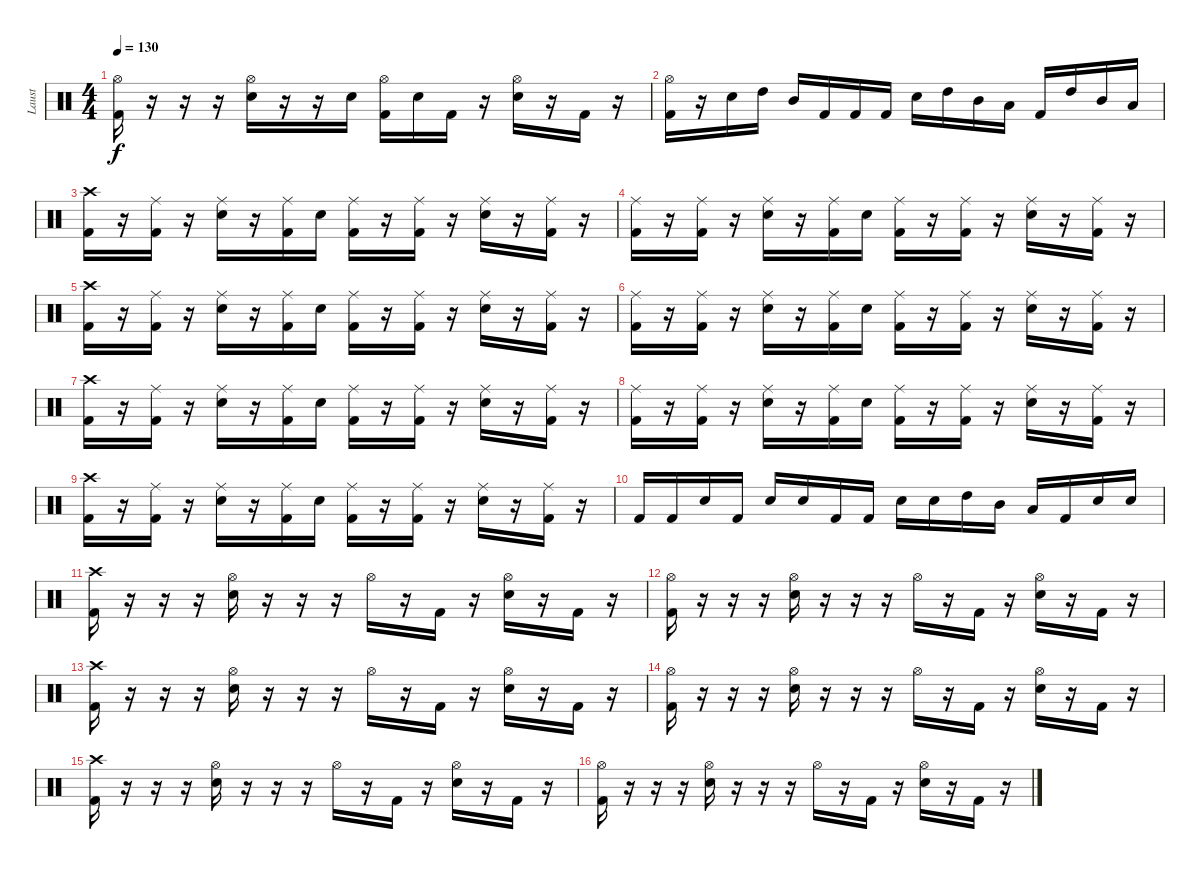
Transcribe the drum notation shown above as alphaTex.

\track ("Laust" "Laust") {instrument percussion}
\staff {score}
\articulation defaults
\ts (4 4)
\tempo 130
\clef neutral
\ks c
("Hi-Hat (open)" "Kick (hit) 2").16{dy f} r.16 r.16 r.16 ("Hi-Hat (open)" "Snare (hit) 2").16 r.16 r.16 "Snare (hit) 2".16 ("Hi-Hat (open)" "Kick (hit) 2").16 "Snare (hit) 2".16 "Kick (hit) 2".16 r.16 ("Hi-Hat (open)" "Snare (hit) 2").16 r.16 "Kick (hit) 2".16 r.16 |
("Hi-Hat (open)" "Kick (hit) 2").16 r.16 "Snare (hit) 2".16 "High Tom (hit)".16 "Mid Tom (hit)".16 "Kick (hit) 2".16 "Kick (hit) 2".16 "Kick (hit) 2".16 "Snare (hit) 2".16 "High Tom (hit)".16 "Mid Tom (hit)".16 "Low Floor Tom (hit)".16 "Kick (hit) 2".16 "High Tom (hit)".16 "Mid Tom (hit)".16 "Low Floor Tom (hit)".16 |
("Crash high (hit)" "Kick (hit) 2").16 r.16 ("Ride (middle)" "Kick (hit) 2").16 r.16 ("Ride (middle)" "Snare (hit) 2").16 r.16 ("Ride (middle)" "Kick (hit) 2").16 "Snare (hit) 2".16 ("Ride (middle)" "Kick (hit) 2").16 r.16 ("Ride (middle)" "Kick (hit) 2").16 r.16 ("Ride (middle)" "Snare (hit) 2").16 r.16 ("Ride (middle)" "Kick (hit) 2").16 r.16 |
("Ride (middle)" "Kick (hit) 2").16 r.16 ("Ride (middle)" "Kick (hit) 2").16 r.16 ("Ride (middle)" "Snare (hit) 2").16 r.16 ("Ride (middle)" "Kick (hit) 2").16 "Snare (hit) 2".16 ("Ride (middle)" "Kick (hit) 2").16 r.16 ("Ride (middle)" "Kick (hit) 2").16 r.16 ("Ride (middle)" "Snare (hit) 2").16 r.16 ("Ride (middle)" "Kick (hit) 2").16 r.16 |
("Crash high (hit)" "Kick (hit) 2").16 r.16 ("Ride (middle)" "Kick (hit) 2").16 r.16 ("Ride (middle)" "Snare (hit) 2").16 r.16 ("Ride (middle)" "Kick (hit) 2").16 "Snare (hit) 2".16 ("Ride (middle)" "Kick (hit) 2").16 r.16 ("Ride (middle)" "Kick (hit) 2").16 r.16 ("Ride (middle)" "Snare (hit) 2").16 r.16 ("Ride (middle)" "Kick (hit) 2").16 r.16 |
("Ride (middle)" "Kick (hit) 2").16 r.16 ("Ride (middle)" "Kick (hit) 2").16 r.16 ("Ride (middle)" "Snare (hit) 2").16 r.16 ("Ride (middle)" "Kick (hit) 2").16 "Snare (hit) 2".16 ("Ride (middle)" "Kick (hit) 2").16 r.16 ("Ride (middle)" "Kick (hit) 2").16 r.16 ("Ride (middle)" "Snare (hit) 2").16 r.16 ("Ride (middle)" "Kick (hit) 2").16 r.16 |
("Crash high (hit)" "Kick (hit) 2").16 r.16 ("Ride (middle)" "Kick (hit) 2").16 r.16 ("Ride (middle)" "Snare (hit) 2").16 r.16 ("Ride (middle)" "Kick (hit) 2").16 "Snare (hit) 2".16 ("Ride (middle)" "Kick (hit) 2").16 r.16 ("Ride (middle)" "Kick (hit) 2").16 r.16 ("Ride (middle)" "Snare (hit) 2").16 r.16 ("Ride (middle)" "Kick (hit) 2").16 r.16 |
("Ride (middle)" "Kick (hit) 2").16 r.16 ("Ride (middle)" "Kick (hit) 2").16 r.16 ("Ride (middle)" "Snare (hit) 2").16 r.16 ("Ride (middle)" "Kick (hit) 2").16 "Snare (hit) 2".16 ("Ride (middle)" "Kick (hit) 2").16 r.16 ("Ride (middle)" "Kick (hit) 2").16 r.16 ("Ride (middle)" "Snare (hit) 2").16 r.16 ("Ride (middle)" "Kick (hit) 2").16 r.16 |
("Crash high (hit)" "Kick (hit) 2").16 r.16 ("Ride (middle)" "Kick (hit) 2").16 r.16 ("Ride (middle)" "Snare (hit) 2").16 r.16 ("Ride (middle)" "Kick (hit) 2").16 "Snare (hit) 2".16 ("Ride (middle)" "Kick (hit) 2").16 r.16 ("Ride (middle)" "Kick (hit) 2").16 r.16 ("Ride (middle)" "Snare (hit) 2").16 r.16 ("Ride (middle)" "Kick (hit) 2").16 r.16 |
"Kick (hit) 2".16 "Kick (hit) 2".16 "Snare (hit) 2".16 "Kick (hit) 2".16 "Snare (hit) 2".16 "Snare (hit) 2".16 "Kick (hit) 2".16 "Kick (hit) 2".16 "Snare (hit) 2".16 "Snare (hit) 2".16 "High Tom (hit)".16 "Mid Tom (hit)".16 "Low Floor Tom (hit)".16 "Kick (hit) 2".16 "Snare (hit) 2".16 "Snare (hit) 2".16 |
("Crash high (hit)" "Kick (hit) 2").16 r.16 r.16 r.16 ("Hi-Hat (open)" "Snare (hit) 2").16 r.16 r.16 r.16 "Hi-Hat (open)".16 r.16 "Kick (hit) 2".16 r.16 ("Hi-Hat (open)" "Snare (hit) 2").16 r.16 "Kick (hit) 2".16 r.16 |
("Hi-Hat (open)" "Kick (hit) 2").16 r.16 r.16 r.16 ("Hi-Hat (open)" "Snare (hit) 2").16 r.16 r.16 r.16 "Hi-Hat (open)".16 r.16 "Kick (hit) 2".16 r.16 ("Hi-Hat (open)" "Snare (hit) 2").16 r.16 "Kick (hit) 2".16 r.16 |
("Crash high (hit)" "Kick (hit) 2").16 r.16 r.16 r.16 ("Hi-Hat (open)" "Snare (hit) 2").16 r.16 r.16 r.16 "Hi-Hat (open)".16 r.16 "Kick (hit) 2".16 r.16 ("Hi-Hat (open)" "Snare (hit) 2").16 r.16 "Kick (hit) 2".16 r.16 |
("Hi-Hat (open)" "Kick (hit) 2").16 r.16 r.16 r.16 ("Hi-Hat (open)" "Snare (hit) 2").16 r.16 r.16 r.16 "Hi-Hat (open)".16 r.16 "Kick (hit) 2".16 r.16 ("Hi-Hat (open)" "Snare (hit) 2").16 r.16 "Kick (hit) 2".16 r.16 |
("Crash high (hit)" "Kick (hit) 2").16 r.16 r.16 r.16 ("Hi-Hat (open)" "Snare (hit) 2").16 r.16 r.16 r.16 "Hi-Hat (open)".16 r.16 "Kick (hit) 2".16 r.16 ("Hi-Hat (open)" "Snare (hit) 2").16 r.16 "Kick (hit) 2".16 r.16 |
("Hi-Hat (open)" "Kick (hit) 2").16 r.16 r.16 r.16 ("Hi-Hat (open)" "Snare (hit) 2").16 r.16 r.16 r.16 "Hi-Hat (open)".16 r.16 "Kick (hit) 2".16 r.16 ("Hi-Hat (open)" "Snare (hit) 2").16 r.16 "Kick (hit) 2".16 r.16
